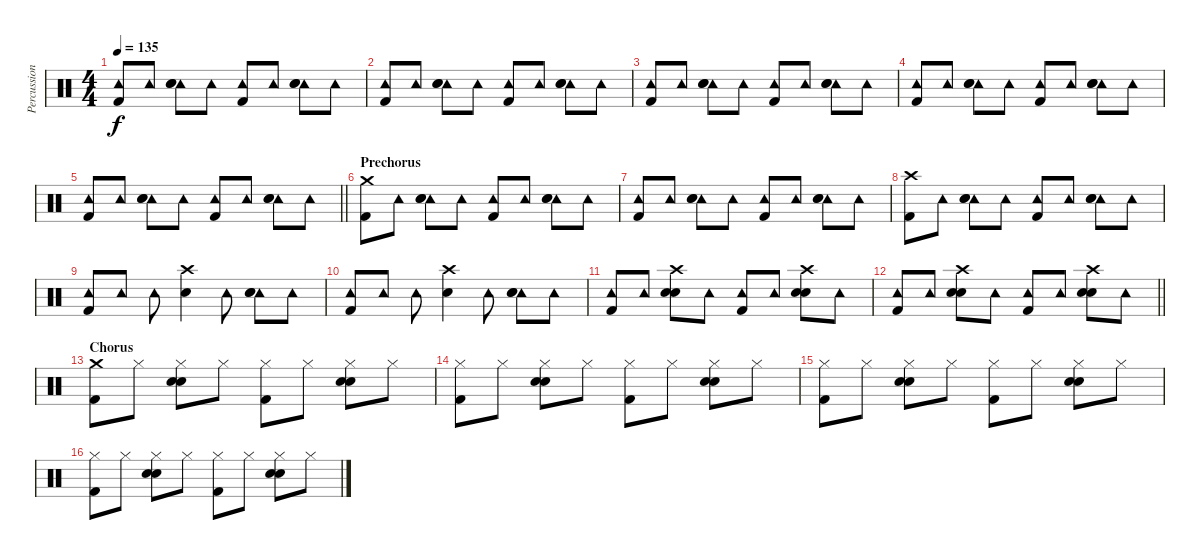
\track ("Percussion" "Percussion") {instrument percussion}
\staff {score}
\articulation defaults
\ts (4 4)
\tempo 135
\clef neutral
\ks c
("Tambourine (hit)" "Kick (hit) 2").8{dy f} "Tambourine (hit)".8 ("Tambourine (hit)" "Snare (hit) 2" "Hand Clap (hit)").8 "Tambourine (hit)".8 ("Tambourine (hit)" "Kick (hit) 2").8 "Tambourine (hit)".8 ("Tambourine (hit)" "Snare (hit) 2" "Hand Clap (hit)").8 "Tambourine (hit)".8 |
("Tambourine (hit)" "Kick (hit) 2").8 "Tambourine (hit)".8 ("Tambourine (hit)" "Snare (hit) 2" "Hand Clap (hit)").8 "Tambourine (hit)".8 ("Tambourine (hit)" "Kick (hit) 2").8 "Tambourine (hit)".8 ("Tambourine (hit)" "Snare (hit) 2" "Hand Clap (hit)").8 "Tambourine (hit)".8 |
("Tambourine (hit)" "Kick (hit) 2").8 "Tambourine (hit)".8 ("Tambourine (hit)" "Snare (hit) 2" "Hand Clap (hit)").8 "Tambourine (hit)".8 ("Tambourine (hit)" "Kick (hit) 2").8 "Tambourine (hit)".8 ("Tambourine (hit)" "Snare (hit) 2" "Hand Clap (hit)").8 "Tambourine (hit)".8 |
("Tambourine (hit)" "Kick (hit) 2").8 "Tambourine (hit)".8 ("Tambourine (hit)" "Snare (hit) 2" "Hand Clap (hit)").8 "Tambourine (hit)".8 ("Tambourine (hit)" "Kick (hit) 2").8 "Tambourine (hit)".8 ("Tambourine (hit)" "Snare (hit) 2" "Hand Clap (hit)").8 "Tambourine (hit)".8 |
\barLineRight lightlight
("Tambourine (hit)" "Kick (hit) 2").8 "Tambourine (hit)".8 ("Tambourine (hit)" "Snare (hit) 2" "Hand Clap (hit)").8 "Tambourine (hit)".8 ("Tambourine (hit)" "Kick (hit) 2").8 "Tambourine (hit)".8 ("Tambourine (hit)" "Snare (hit) 2" "Hand Clap (hit)").8 "Tambourine (hit)".8 |
\section ("" "Prechorus")
("Crash medium (hit)" "Kick (hit) 2").8 "Tambourine (hit)".8 ("Tambourine (hit)" "Snare (hit) 2" "Hand Clap (hit)").8 "Tambourine (hit)".8 ("Tambourine (hit)" "Kick (hit) 2").8 "Tambourine (hit)".8 ("Tambourine (hit)" "Snare (hit) 2" "Hand Clap (hit)").8 "Tambourine (hit)".8 |
("Tambourine (hit)" "Kick (hit) 2").8 "Tambourine (hit)".8 ("Tambourine (hit)" "Snare (hit) 2" "Hand Clap (hit)").8 "Tambourine (hit)".8 ("Tambourine (hit)" "Kick (hit) 2").8 "Tambourine (hit)".8 ("Tambourine (hit)" "Snare (hit) 2" "Hand Clap (hit)").8 "Tambourine (hit)".8 |
("Crash high (hit)" "Kick (hit) 2").8 "Tambourine (hit)".8 ("Tambourine (hit)" "Snare (hit) 2" "Hand Clap (hit)").8 "Tambourine (hit)".8 ("Tambourine (hit)" "Kick (hit) 2").8 "Tambourine (hit)".8 ("Tambourine (hit)" "Snare (hit) 2" "Hand Clap (hit)").8 "Tambourine (hit)".8 |
("Tambourine (hit)" "Kick (hit) 2").8 "Tambourine (hit)".8 "Tambourine (hit)".8 ("Crash high (hit)" "Snare (hit) 2").4 "Tambourine (hit)".8 ("Tambourine (hit)" "Snare (hit) 2" "Hand Clap (hit)").8 "Tambourine (hit)".8 |
("Tambourine (hit)" "Kick (hit) 2").8 "Tambourine (hit)".8 "Tambourine (hit)".8 ("Crash high (hit)" "Snare (hit) 2").4 "Tambourine (hit)".8 ("Tambourine (hit)" "Snare (hit) 2" "Hand Clap (hit)").8 "Tambourine (hit)".8 |
("Tambourine (hit)" "Kick (hit) 2").8 "Tambourine (hit)".8 ("Crash high (hit)" "Snare (hit) 2" "Hand Clap (hit)").8 "Tambourine (hit)".8 ("Tambourine (hit)" "Kick (hit) 2").8 "Tambourine (hit)".8 ("Crash high (hit)" "Snare (hit) 2" "Hand Clap (hit)").8 "Tambourine (hit)".8 |
\barLineRight lightlight
("Tambourine (hit)" "Kick (hit) 2").8 "Tambourine (hit)".8 ("Crash high (hit)" "Snare (hit) 2" "Hand Clap (hit)").8 "Tambourine (hit)".8 ("Tambourine (hit)" "Kick (hit) 2").8 "Tambourine (hit)".8 ("Crash high (hit)" "Snare (hit) 2" "Hand Clap (hit)").8 "Tambourine (hit)".8 |
\section ("" "Chorus")
("Crash medium (hit)" "Kick (hit) 2").8 "Hi-Hat (closed)".8 ("Hi-Hat (closed)" "Snare (hit) 2" "Hand Clap (hit)").8 "Hi-Hat (closed)".8 ("Hi-Hat (closed)" "Kick (hit) 2").8 "Hi-Hat (closed)".8 ("Hi-Hat (closed)" "Snare (hit) 2" "Hand Clap (hit)").8 "Hi-Hat (closed)".8 |
("Hi-Hat (closed)" "Kick (hit) 2").8 "Hi-Hat (closed)".8 ("Hi-Hat (closed)" "Snare (hit) 2" "Hand Clap (hit)").8 "Hi-Hat (closed)".8 ("Hi-Hat (closed)" "Kick (hit) 2").8 "Hi-Hat (closed)".8 ("Hi-Hat (closed)" "Snare (hit) 2" "Hand Clap (hit)").8 "Hi-Hat (closed)".8 |
("Hi-Hat (closed)" "Kick (hit) 2").8 "Hi-Hat (closed)".8 ("Hi-Hat (closed)" "Snare (hit) 2" "Hand Clap (hit)").8 "Hi-Hat (closed)".8 ("Hi-Hat (closed)" "Kick (hit) 2").8 "Hi-Hat (closed)".8 ("Hi-Hat (closed)" "Snare (hit) 2" "Hand Clap (hit)").8 "Hi-Hat (closed)".8 |
("Hi-Hat (closed)" "Kick (hit) 2").8 "Hi-Hat (closed)".8 ("Hi-Hat (closed)" "Snare (hit) 2" "Hand Clap (hit)").8 "Hi-Hat (closed)".8 ("Hi-Hat (closed)" "Kick (hit) 2").8 "Hi-Hat (closed)".8 ("Hi-Hat (closed)" "Snare (hit) 2" "Hand Clap (hit)").8 "Hi-Hat (closed)".8
